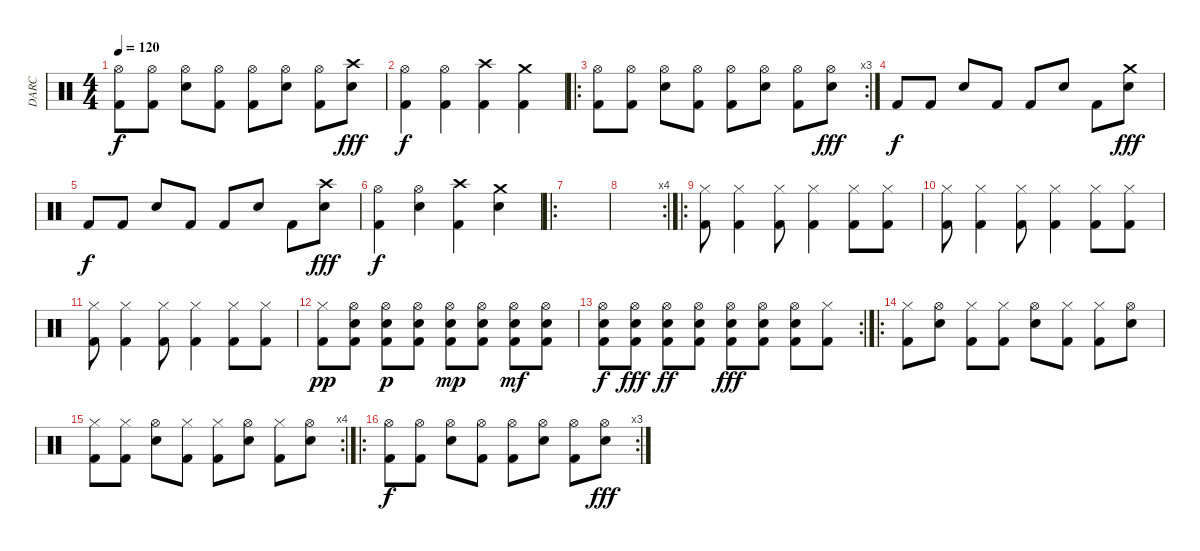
\track ("DARC" "DARC") {instrument percussion}
\staff {score}
\articulation defaults
\ts (4 4)
\tempo 120
\clef neutral
\ks c
("Hi-Hat (open)" "Kick (hit) 2").8{dy f} ("Hi-Hat (open)" "Kick (hit) 2").8 ("Hi-Hat (open)" "Snare (hit) 2").8 ("Hi-Hat (open)" "Kick (hit) 2").8 ("Hi-Hat (open)" "Kick (hit) 2").8 ("Hi-Hat (open)" "Snare (hit) 2").8 ("Hi-Hat (open)" "Kick (hit) 2").8 ("Crash high (hit)" "Snare (hit) 2").8{dy fff} |
("Kick (hit) 2" "Hi-Hat (open)").4{dy f} ("Kick (hit) 2" "Hi-Hat (open)").4 ("Kick (hit) 2" "Crash high (hit)").4 ("Kick (hit) 2" "Crash medium (hit)").4 |
\ro
\rc 3
("Hi-Hat (open)" "Kick (hit) 2").8 ("Hi-Hat (open)" "Kick (hit) 2").8 ("Hi-Hat (open)" "Snare (hit) 2").8 ("Hi-Hat (open)" "Kick (hit) 2").8 ("Hi-Hat (open)" "Kick (hit) 2").8 ("Hi-Hat (open)" "Snare (hit) 2").8 ("Hi-Hat (open)" "Kick (hit) 2").8 ("Hi-Hat (open)" "Snare (hit) 2").8{dy fff} |
"Kick (hit) 2".8{dy f} "Kick (hit) 2".8 "Snare (hit) 2".8 "Kick (hit) 2".8 "Kick (hit) 2".8 "Snare (hit) 2".8 "Kick (hit) 2".8 ("Crash medium (hit)" "Snare (hit) 2").8{dy fff} |
"Kick (hit) 2".8{dy f} "Kick (hit) 2".8 "Snare (hit) 2".8 "Kick (hit) 2".8 "Kick (hit) 2".8 "Snare (hit) 2".8 "Kick (hit) 2".8 ("Crash high (hit)" "Snare (hit) 2").8{dy fff} |
("Kick (hit) 2" "Hi-Hat (open)").4{dy f} ("Electric Snare (hit)" "Hi-Hat (open)").4 ("Kick (hit) 2" "Crash high (hit)").4 ("Electric Snare (hit)" "Crash medium (hit)").4 |
\ro
|
\rc 4
|
\ro
("Hi-Hat (closed)" "Kick (hit) 2").8 ("Hi-Hat (closed)" "Kick (hit) 2").4 ("Hi-Hat (closed)" "Kick (hit) 2").8 ("Hi-Hat (closed)" "Kick (hit) 2").4 ("Hi-Hat (closed)" "Kick (hit) 2").8 ("Hi-Hat (closed)" "Kick (hit) 2").8 |
("Hi-Hat (closed)" "Kick (hit) 2").8 ("Hi-Hat (closed)" "Kick (hit) 2").4 ("Hi-Hat (closed)" "Kick (hit) 2").8 ("Hi-Hat (closed)" "Kick (hit) 2").4 ("Hi-Hat (closed)" "Kick (hit) 2").8 ("Hi-Hat (closed)" "Kick (hit) 2").8 |
("Hi-Hat (closed)" "Kick (hit) 2").8 ("Hi-Hat (closed)" "Kick (hit) 2").4 ("Hi-Hat (closed)" "Kick (hit) 2").8 ("Hi-Hat (closed)" "Kick (hit) 2").4 ("Hi-Hat (closed)" "Kick (hit) 2").8 ("Hi-Hat (closed)" "Kick (hit) 2").8 |
("Hi-Hat (closed)" "Kick (hit) 2").8{dy pp} ("Kick (hit) 2" "Hi-Hat (open)" "Electric Snare (hit)").8 ("Kick (hit) 2" "Hi-Hat (open)" "Electric Snare (hit)").8{dy p} ("Kick (hit) 2" "Hi-Hat (open)" "Electric Snare (hit)").8 ("Kick (hit) 2" "Hi-Hat (open)" "Electric Snare (hit)").8{dy mp} ("Kick (hit) 2" "Hi-Hat (open)" "Electric Snare (hit)").8 ("Kick (hit) 2" "Hi-Hat (open)" "Electric Snare (hit)").8{dy mf} ("Kick (hit) 2" "Hi-Hat (open)" "Electric Snare (hit)").8 |
\rc 2
("Kick (hit) 2" "Hi-Hat (open)" "Electric Snare (hit)").8{dy f} ("Kick (hit) 2" "Hi-Hat (open)" "Electric Snare (hit)").8{dy fff} ("Kick (hit) 2" "Hi-Hat (open)" "Electric Snare (hit)").8{dy ff} ("Kick (hit) 2" "Hi-Hat (open)" "Electric Snare (hit)").8 ("Kick (hit) 2" "Hi-Hat (open)" "Electric Snare (hit)").8{dy fff} ("Kick (hit) 2" "Hi-Hat (open)" "Electric Snare (hit)").8 ("Kick (hit) 2" "Hi-Hat (open)" "Electric Snare (hit)").8 ("Hi-Hat (closed)" "Kick (hit) 2").8 |
\ro
("Hi-Hat (closed)" "Kick (hit) 2").8 ("Hi-Hat (open)" "Electric Snare (hit)").8 ("Hi-Hat (closed)" "Kick (hit) 2").8 ("Hi-Hat (closed)" "Kick (hit) 2").8 ("Hi-Hat (open)" "Electric Snare (hit)").8 ("Hi-Hat (closed)" "Kick (hit) 2").8 ("Hi-Hat (closed)" "Kick (hit) 2").8 ("Hi-Hat (open)" "Electric Snare (hit)").8 |
\rc 4
("Hi-Hat (closed)" "Kick (hit) 2").8 ("Hi-Hat (closed)" "Kick (hit) 2").8 ("Hi-Hat (open)" "Electric Snare (hit)").8 ("Hi-Hat (closed)" "Kick (hit) 2").8 ("Hi-Hat (closed)" "Kick (hit) 2").8 ("Hi-Hat (open)" "Electric Snare (hit)").8 ("Hi-Hat (closed)" "Kick (hit) 2").8 ("Hi-Hat (open)" "Electric Snare (hit)").8 |
\ro
\rc 3
("Hi-Hat (open)" "Kick (hit) 2").8{dy f} ("Hi-Hat (open)" "Kick (hit) 2").8 ("Hi-Hat (open)" "Snare (hit) 2").8 ("Hi-Hat (open)" "Kick (hit) 2").8 ("Hi-Hat (open)" "Kick (hit) 2").8 ("Hi-Hat (open)" "Snare (hit) 2").8 ("Hi-Hat (open)" "Kick (hit) 2").8 ("Hi-Hat (open)" "Snare (hit) 2").8{dy fff}
